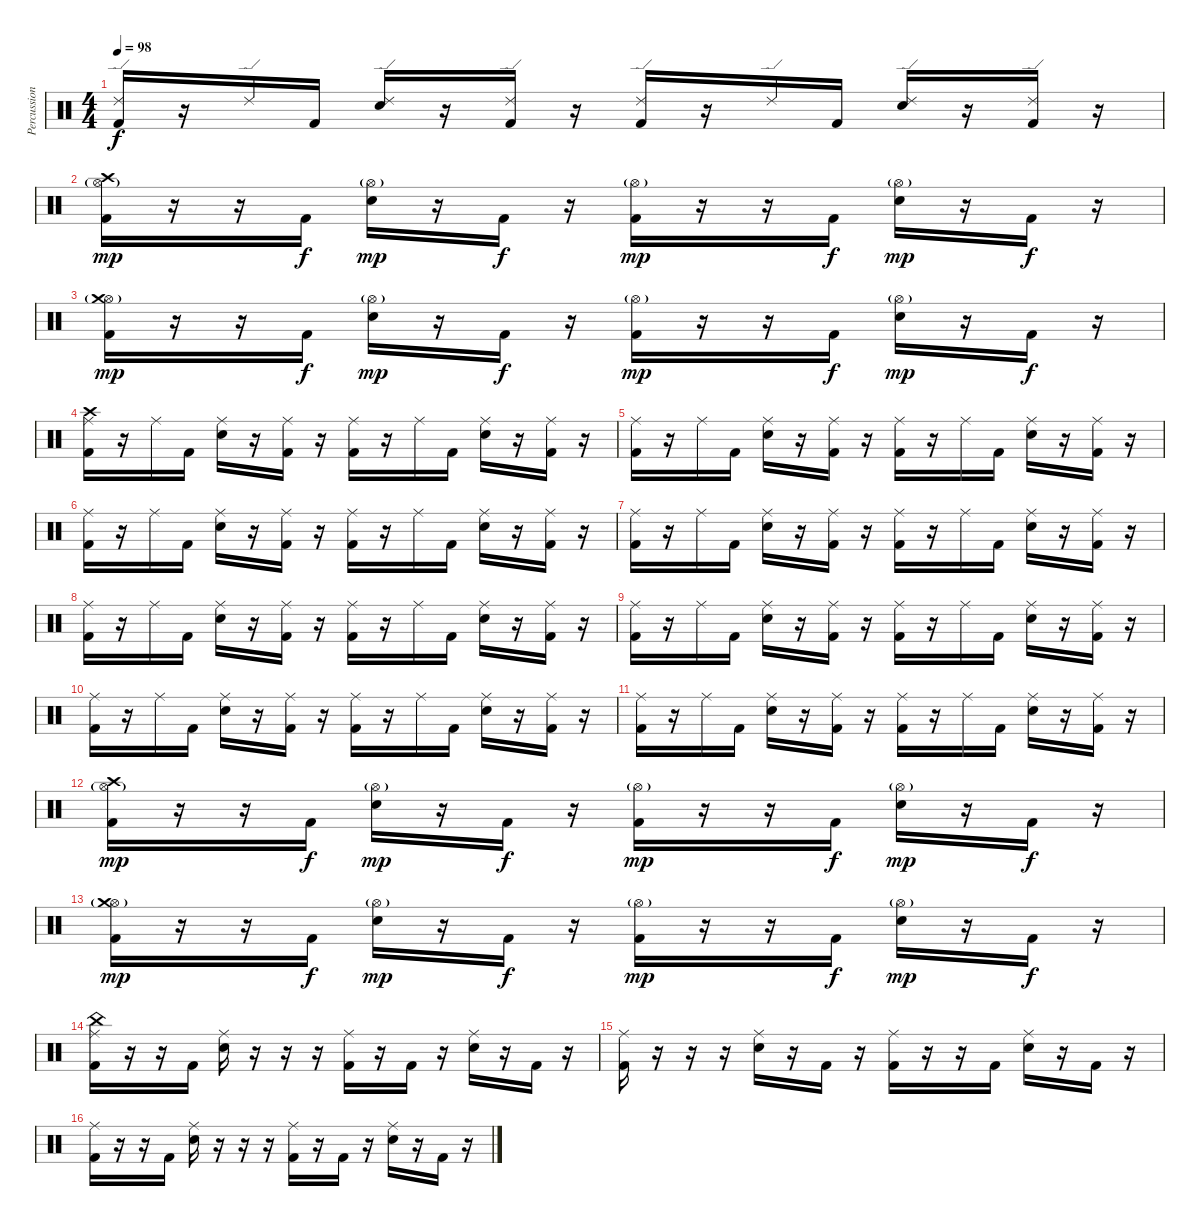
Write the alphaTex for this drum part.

\track ("Percussions" "Percussion") {instrument percussion}
\staff {score}
\articulation defaults
\ts (4 4)
\tempo 98
\clef neutral
\ks c
("Ride (edge) 2" "Kick (hit) 2").16{dy f} r.16 "Ride (edge) 2".16 "Kick (hit) 2".16 ("Ride (edge) 2" "Snare (hit) 2").16 r.16 ("Ride (edge) 2" "Kick (hit) 2").16 r.16 ("Ride (edge) 2" "Kick (hit) 2").16 r.16 "Ride (edge) 2".16 "Kick (hit) 2".16 ("Ride (edge) 2" "Snare (hit) 2").16 r.16 ("Ride (edge) 2" "Kick (hit) 2").16 r.16 |
("Hi-Hat (open)"{g} "Crash high (hit)" "Kick (hit) 2").16{dy mp} r.16 r.16 "Kick (hit) 2".16{dy f} ("Hi-Hat (open)"{g} "Snare (hit) 2").16{dy mp} r.16 "Kick (hit) 2".16{dy f} r.16 ("Hi-Hat (open)"{g} "Kick (hit) 2").16{dy mp} r.16 r.16 "Kick (hit) 2".16{dy f} ("Hi-Hat (open)"{g} "Snare (hit) 2").16{dy mp} r.16 "Kick (hit) 2".16{dy f} r.16 |
("Hi-Hat (open)"{g} "Crash medium (hit)" "Kick (hit) 2").16{dy mp} r.16 r.16 "Kick (hit) 2".16{dy f} ("Hi-Hat (open)"{g} "Snare (hit) 2").16{dy mp} r.16 "Kick (hit) 2".16{dy f} r.16 ("Hi-Hat (open)"{g} "Kick (hit) 2").16{dy mp} r.16 r.16 "Kick (hit) 2".16{dy f} ("Hi-Hat (open)"{g} "Snare (hit) 2").16{dy mp} r.16 "Kick (hit) 2".16{dy f} r.16 |
("Ride (middle)" "Crash high (hit)" "Kick (hit) 2").16 r.16 "Ride (middle)".16 "Kick (hit) 2".16 ("Ride (middle)" "Snare (hit) 2").16 r.16 ("Ride (middle)" "Kick (hit) 2").16 r.16 ("Ride (middle)" "Kick (hit) 2").16 r.16 "Ride (middle)".16 "Kick (hit) 2".16 ("Ride (middle)" "Snare (hit) 2").16 r.16 ("Ride (middle)" "Kick (hit) 2").16 r.16 |
("Ride (middle)" "Kick (hit) 2").16 r.16 "Ride (middle)".16 "Kick (hit) 2".16 ("Ride (middle)" "Snare (hit) 2").16 r.16 ("Ride (middle)" "Kick (hit) 2").16 r.16 ("Ride (middle)" "Kick (hit) 2").16 r.16 "Ride (middle)".16 "Kick (hit) 2".16 ("Ride (middle)" "Snare (hit) 2").16 r.16 ("Ride (middle)" "Kick (hit) 2").16 r.16 |
("Ride (middle)" "Kick (hit) 2").16 r.16 "Ride (middle)".16 "Kick (hit) 2".16 ("Ride (middle)" "Snare (hit) 2").16 r.16 ("Ride (middle)" "Kick (hit) 2").16 r.16 ("Ride (middle)" "Kick (hit) 2").16 r.16 "Ride (middle)".16 "Kick (hit) 2".16 ("Ride (middle)" "Snare (hit) 2").16 r.16 ("Ride (middle)" "Kick (hit) 2").16 r.16 |
("Ride (middle)" "Kick (hit) 2").16 r.16 "Ride (middle)".16 "Kick (hit) 2".16 ("Ride (middle)" "Snare (hit) 2").16 r.16 ("Ride (middle)" "Kick (hit) 2").16 r.16 ("Ride (middle)" "Kick (hit) 2").16 r.16 "Ride (middle)".16 "Kick (hit) 2".16 ("Ride (middle)" "Snare (hit) 2").16 r.16 ("Ride (middle)" "Kick (hit) 2").16 r.16 |
("Ride (middle)" "Kick (hit) 2").16 r.16 "Ride (middle)".16 "Kick (hit) 2".16 ("Ride (middle)" "Snare (hit) 2").16 r.16 ("Ride (middle)" "Kick (hit) 2").16 r.16 ("Ride (middle)" "Kick (hit) 2").16 r.16 "Ride (middle)".16 "Kick (hit) 2".16 ("Ride (middle)" "Snare (hit) 2").16 r.16 ("Ride (middle)" "Kick (hit) 2").16 r.16 |
("Ride (middle)" "Kick (hit) 2").16 r.16 "Ride (middle)".16 "Kick (hit) 2".16 ("Ride (middle)" "Snare (hit) 2").16 r.16 ("Ride (middle)" "Kick (hit) 2").16 r.16 ("Ride (middle)" "Kick (hit) 2").16 r.16 "Ride (middle)".16 "Kick (hit) 2".16 ("Ride (middle)" "Snare (hit) 2").16 r.16 ("Ride (middle)" "Kick (hit) 2").16 r.16 |
("Ride (middle)" "Kick (hit) 2").16 r.16 "Ride (middle)".16 "Kick (hit) 2".16 ("Ride (middle)" "Snare (hit) 2").16 r.16 ("Ride (middle)" "Kick (hit) 2").16 r.16 ("Ride (middle)" "Kick (hit) 2").16 r.16 "Ride (middle)".16 "Kick (hit) 2".16 ("Ride (middle)" "Snare (hit) 2").16 r.16 ("Ride (middle)" "Kick (hit) 2").16 r.16 |
("Ride (middle)" "Kick (hit) 2").16 r.16 "Ride (middle)".16 "Kick (hit) 2".16 ("Ride (middle)" "Snare (hit) 2").16 r.16 ("Ride (middle)" "Kick (hit) 2").16 r.16 ("Ride (middle)" "Kick (hit) 2").16 r.16 "Ride (middle)".16 "Kick (hit) 2".16 ("Ride (middle)" "Snare (hit) 2").16 r.16 ("Ride (middle)" "Kick (hit) 2").16 r.16 |
("Hi-Hat (open)"{g} "Crash high (hit)" "Kick (hit) 2").16{dy mp} r.16 r.16 "Kick (hit) 2".16{dy f} ("Hi-Hat (open)"{g} "Snare (hit) 2").16{dy mp} r.16 "Kick (hit) 2".16{dy f} r.16 ("Hi-Hat (open)"{g} "Kick (hit) 2").16{dy mp} r.16 r.16 "Kick (hit) 2".16{dy f} ("Hi-Hat (open)"{g} "Snare (hit) 2").16{dy mp} r.16 "Kick (hit) 2".16{dy f} r.16 |
("Hi-Hat (open)"{g} "Crash medium (hit)" "Kick (hit) 2").16{dy mp} r.16 r.16 "Kick (hit) 2".16{dy f} ("Hi-Hat (open)"{g} "Snare (hit) 2").16{dy mp} r.16 "Kick (hit) 2".16{dy f} r.16 ("Hi-Hat (open)"{g} "Kick (hit) 2").16{dy mp} r.16 r.16 "Kick (hit) 2".16{dy f} ("Hi-Hat (open)"{g} "Snare (hit) 2").16{dy mp} r.16 "Kick (hit) 2".16{dy f} r.16 |
("Ride (middle)" "China (hit)" "Kick (hit) 2").16 r.16 r.16 "Kick (hit) 2".16 ("Ride (middle)" "Snare (hit) 2").16 r.16 r.16 r.16 ("Ride (middle)" "Kick (hit) 2").16 r.16 "Kick (hit) 2".16 r.16 ("Ride (middle)" "Snare (hit) 2").16 r.16 "Kick (hit) 2".16 r.16 |
("Ride (middle)" "Kick (hit) 2").16 r.16 r.16 r.16 ("Ride (middle)" "Snare (hit) 2").16 r.16 "Kick (hit) 2".16 r.16 ("Ride (middle)" "Kick (hit) 2").16 r.16 r.16 "Kick (hit) 2".16 ("Ride (middle)" "Snare (hit) 2").16 r.16 "Kick (hit) 2".16 r.16 |
("Ride (middle)" "Kick (hit) 2").16 r.16 r.16 "Kick (hit) 2".16 ("Ride (middle)" "Snare (hit) 2").16 r.16 r.16 r.16 ("Ride (middle)" "Kick (hit) 2").16 r.16 "Kick (hit) 2".16 r.16 ("Ride (middle)" "Snare (hit) 2").16 r.16 "Kick (hit) 2".16 r.16
